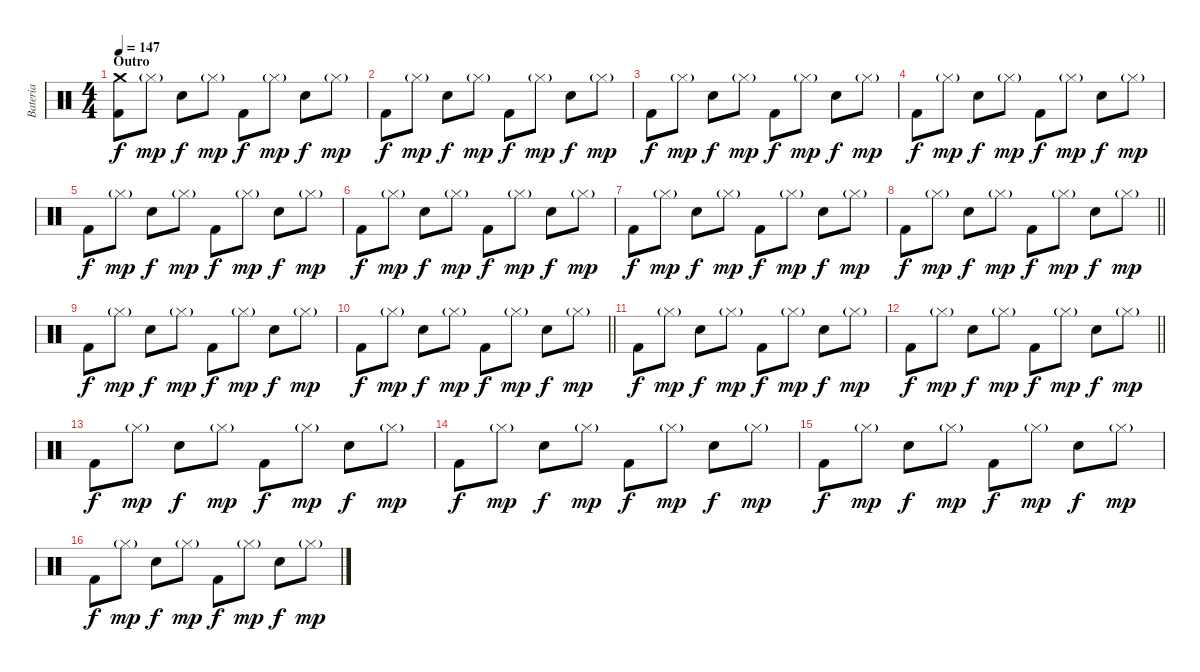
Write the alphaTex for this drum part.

\track ("Bateria" "Bateria") {instrument percussion}
\staff {score}
\articulation defaults
\ts (4 4)
\section ("" "Outro")
\tempo 147
\clef neutral
\ks c
("Crash medium (hit)" "Kick (hit) 2").8{dy f} "Hi-Hat (closed)"{g}.8{dy mp} "Electric Snare (hit)".8{dy f} "Hi-Hat (closed)"{g}.8{dy mp} "Kick (hit) 2".8{dy f} "Hi-Hat (closed)"{g}.8{dy mp} "Electric Snare (hit)".8{dy f} "Hi-Hat (closed)"{g}.8{dy mp} |
"Kick (hit) 2".8{dy f} "Hi-Hat (closed)"{g}.8{dy mp} "Electric Snare (hit)".8{dy f} "Hi-Hat (closed)"{g}.8{dy mp} "Kick (hit) 2".8{dy f} "Hi-Hat (closed)"{g}.8{dy mp} "Electric Snare (hit)".8{dy f} "Hi-Hat (closed)"{g}.8{dy mp} |
"Kick (hit) 2".8{dy f} "Hi-Hat (closed)"{g}.8{dy mp} "Electric Snare (hit)".8{dy f} "Hi-Hat (closed)"{g}.8{dy mp} "Kick (hit) 2".8{dy f} "Hi-Hat (closed)"{g}.8{dy mp} "Electric Snare (hit)".8{dy f} "Hi-Hat (closed)"{g}.8{dy mp} |
"Kick (hit) 2".8{dy f} "Hi-Hat (closed)"{g}.8{dy mp} "Electric Snare (hit)".8{dy f} "Hi-Hat (closed)"{g}.8{dy mp} "Kick (hit) 2".8{dy f} "Hi-Hat (closed)"{g}.8{dy mp} "Electric Snare (hit)".8{dy f} "Hi-Hat (closed)"{g}.8{dy mp} |
"Kick (hit) 2".8{dy f} "Hi-Hat (closed)"{g}.8{dy mp} "Electric Snare (hit)".8{dy f} "Hi-Hat (closed)"{g}.8{dy mp} "Kick (hit) 2".8{dy f} "Hi-Hat (closed)"{g}.8{dy mp} "Electric Snare (hit)".8{dy f} "Hi-Hat (closed)"{g}.8{dy mp} |
"Kick (hit) 2".8{dy f} "Hi-Hat (closed)"{g}.8{dy mp} "Electric Snare (hit)".8{dy f} "Hi-Hat (closed)"{g}.8{dy mp} "Kick (hit) 2".8{dy f} "Hi-Hat (closed)"{g}.8{dy mp} "Electric Snare (hit)".8{dy f} "Hi-Hat (closed)"{g}.8{dy mp} |
"Kick (hit) 2".8{dy f} "Hi-Hat (closed)"{g}.8{dy mp} "Electric Snare (hit)".8{dy f} "Hi-Hat (closed)"{g}.8{dy mp} "Kick (hit) 2".8{dy f} "Hi-Hat (closed)"{g}.8{dy mp} "Electric Snare (hit)".8{dy f} "Hi-Hat (closed)"{g}.8{dy mp} |
\barLineRight lightlight "Kick (hit) 2".8{dy f} "Hi-Hat (closed)"{g}.8{dy mp} "Electric Snare (hit)".8{dy f} "Hi-Hat (closed)"{g}.8{dy mp} "Kick (hit) 2".8{dy f} "Hi-Hat (closed)"{g}.8{dy mp} "Electric Snare (hit)".8{dy f} "Hi-Hat (closed)"{g}.8{dy mp}
|
\section ("" "")
"Kick (hit) 2".8{dy f} "Hi-Hat (closed)"{g}.8{dy mp} "Electric Snare (hit)".8{dy f} "Hi-Hat (closed)"{g}.8{dy mp} "Kick (hit) 2".8{dy f} "Hi-Hat (closed)"{g}.8{dy mp} "Electric Snare (hit)".8{dy f} "Hi-Hat (closed)"{g}.8{dy mp} |
\barLineRight lightlight "Kick (hit) 2".8{dy f} "Hi-Hat (closed)"{g}.8{dy mp} "Electric Snare (hit)".8{dy f} "Hi-Hat (closed)"{g}.8{dy mp} "Kick (hit) 2".8{dy f} "Hi-Hat (closed)"{g}.8{dy mp} "Electric Snare (hit)".8{dy f} "Hi-Hat (closed)"{g}.8{dy mp}
|
"Kick (hit) 2".8{dy f} "Hi-Hat (closed)"{g}.8{dy mp} "Electric Snare (hit)".8{dy f} "Hi-Hat (closed)"{g}.8{dy mp} "Kick (hit) 2".8{dy f} "Hi-Hat (closed)"{g}.8{dy mp} "Electric Snare (hit)".8{dy f} "Hi-Hat (closed)"{g}.8{dy mp} |
\barLineRight lightlight "Kick (hit) 2".8{dy f} "Hi-Hat (closed)"{g}.8{dy mp} "Electric Snare (hit)".8{dy f} "Hi-Hat (closed)"{g}.8{dy mp} "Kick (hit) 2".8{dy f} "Hi-Hat (closed)"{g}.8{dy mp} "Electric Snare (hit)".8{dy f} "Hi-Hat (closed)"{g}.8{dy mp}
|
"Kick (hit) 2".8{dy f} "Hi-Hat (closed)"{g}.8{dy mp} "Electric Snare (hit)".8{dy f} "Hi-Hat (closed)"{g}.8{dy mp} "Kick (hit) 2".8{dy f} "Hi-Hat (closed)"{g}.8{dy mp} "Electric Snare (hit)".8{dy f} "Hi-Hat (closed)"{g}.8{dy mp} |
"Kick (hit) 2".8{dy f} "Hi-Hat (closed)"{g}.8{dy mp} "Electric Snare (hit)".8{dy f} "Hi-Hat (closed)"{g}.8{dy mp} "Kick (hit) 2".8{dy f} "Hi-Hat (closed)"{g}.8{dy mp} "Electric Snare (hit)".8{dy f} "Hi-Hat (closed)"{g}.8{dy mp} |
"Kick (hit) 2".8{dy f} "Hi-Hat (closed)"{g}.8{dy mp} "Electric Snare (hit)".8{dy f} "Hi-Hat (closed)"{g}.8{dy mp} "Kick (hit) 2".8{dy f} "Hi-Hat (closed)"{g}.8{dy mp} "Electric Snare (hit)".8{dy f} "Hi-Hat (closed)"{g}.8{dy mp} |
"Kick (hit) 2".8{dy f} "Hi-Hat (closed)"{g}.8{dy mp} "Electric Snare (hit)".8{dy f} "Hi-Hat (closed)"{g}.8{dy mp} "Kick (hit) 2".8{dy f} "Hi-Hat (closed)"{g}.8{dy mp} "Electric Snare (hit)".8{dy f} "Hi-Hat (closed)"{g}.8{dy mp}
